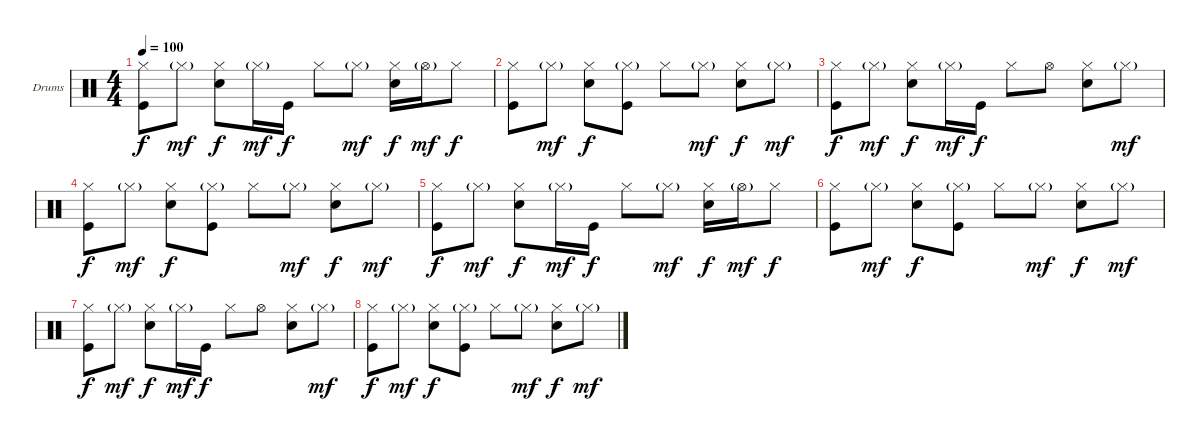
\bracketExtendMode groupsimilarinstruments
\firstSystemTrackNameOrientation horizontal
\otherSystemsTrackNameOrientation horizontal
\track ("Drumkit" "Drums") {instrument percussion}
\staff {score}
\articulation defaults
\ts (4 4)
\tempo 100
\clef neutral
\ks c
("Hi-Hat (closed)" "Kick (hit)").8{dy f} "Hi-Hat (closed)"{g}.8{dy mf} ("Hi-Hat (closed)" "Snare (hit) 2").8{dy f} "Hi-Hat (closed)"{g}.16{dy mf} "Kick (hit)".16{dy f} "Hi-Hat (closed)".8 "Hi-Hat (closed)"{g}.8{dy mf} ("Hi-Hat (closed)" "Snare (hit) 2").16{dy f} "Hi-Hat (open)"{g}.16{dy mf} "Hi-Hat (closed)".8{dy f} |
("Hi-Hat (closed)" "Kick (hit)").8 "Hi-Hat (closed)"{g}.8{dy mf} ("Hi-Hat (closed)" "Snare (hit) 2").8{dy f} ("Hi-Hat (closed)"{g} "Kick (hit)").8 "Hi-Hat (closed)".8 "Hi-Hat (closed)"{g}.8{dy mf} ("Hi-Hat (closed)" "Snare (hit) 2").8{dy f} "Hi-Hat (closed)"{g}.8{dy mf} |
("Hi-Hat (closed)" "Kick (hit)").8{dy f} "Hi-Hat (closed)"{g}.8{dy mf} ("Hi-Hat (closed)" "Snare (hit) 2").8{dy f} "Hi-Hat (closed)"{g}.16{dy mf} "Kick (hit)".16{dy f} "Hi-Hat (closed)".8 "Hi-Hat (open)".8 ("Hi-Hat (closed)" "Snare (hit) 2").8 "Hi-Hat (closed)"{g}.8{dy mf} |
("Hi-Hat (closed)" "Kick (hit)").8{dy f} "Hi-Hat (closed)"{g}.8{dy mf} ("Hi-Hat (closed)" "Snare (hit) 2").8{dy f} ("Hi-Hat (closed)"{g} "Kick (hit)").8 "Hi-Hat (closed)".8 "Hi-Hat (closed)"{g}.8{dy mf} ("Hi-Hat (closed)" "Snare (hit) 2").8{dy f} "Hi-Hat (closed)"{g}.8{dy mf} |
("Hi-Hat (closed)" "Kick (hit)").8{dy f} "Hi-Hat (closed)"{g}.8{dy mf} ("Hi-Hat (closed)" "Snare (hit) 2").8{dy f} "Hi-Hat (closed)"{g}.16{dy mf} "Kick (hit)".16{dy f} "Hi-Hat (closed)".8 "Hi-Hat (closed)"{g}.8{dy mf} ("Hi-Hat (closed)" "Snare (hit) 2").16{dy f} "Hi-Hat (open)"{g}.16{dy mf} "Hi-Hat (closed)".8{dy f} |
("Hi-Hat (closed)" "Kick (hit)").8 "Hi-Hat (closed)"{g}.8{dy mf} ("Hi-Hat (closed)" "Snare (hit) 2").8{dy f} ("Hi-Hat (closed)"{g} "Kick (hit)").8 "Hi-Hat (closed)".8 "Hi-Hat (closed)"{g}.8{dy mf} ("Hi-Hat (closed)" "Snare (hit) 2").8{dy f} "Hi-Hat (closed)"{g}.8{dy mf} |
("Hi-Hat (closed)" "Kick (hit)").8{dy f} "Hi-Hat (closed)"{g}.8{dy mf} ("Hi-Hat (closed)" "Snare (hit) 2").8{dy f} "Hi-Hat (closed)"{g}.16{dy mf} "Kick (hit)".16{dy f} "Hi-Hat (closed)".8 "Hi-Hat (open)".8 ("Hi-Hat (closed)" "Snare (hit) 2").8 "Hi-Hat (closed)"{g}.8{dy mf} |
("Hi-Hat (closed)" "Kick (hit)").8{dy f} "Hi-Hat (closed)"{g}.8{dy mf} ("Hi-Hat (closed)" "Snare (hit) 2").8{dy f} ("Hi-Hat (closed)"{g} "Kick (hit)").8 "Hi-Hat (closed)".8 "Hi-Hat (closed)"{g}.8{dy mf} ("Hi-Hat (closed)" "Snare (hit) 2").8{dy f} "Hi-Hat (closed)"{g}.8{dy mf}
